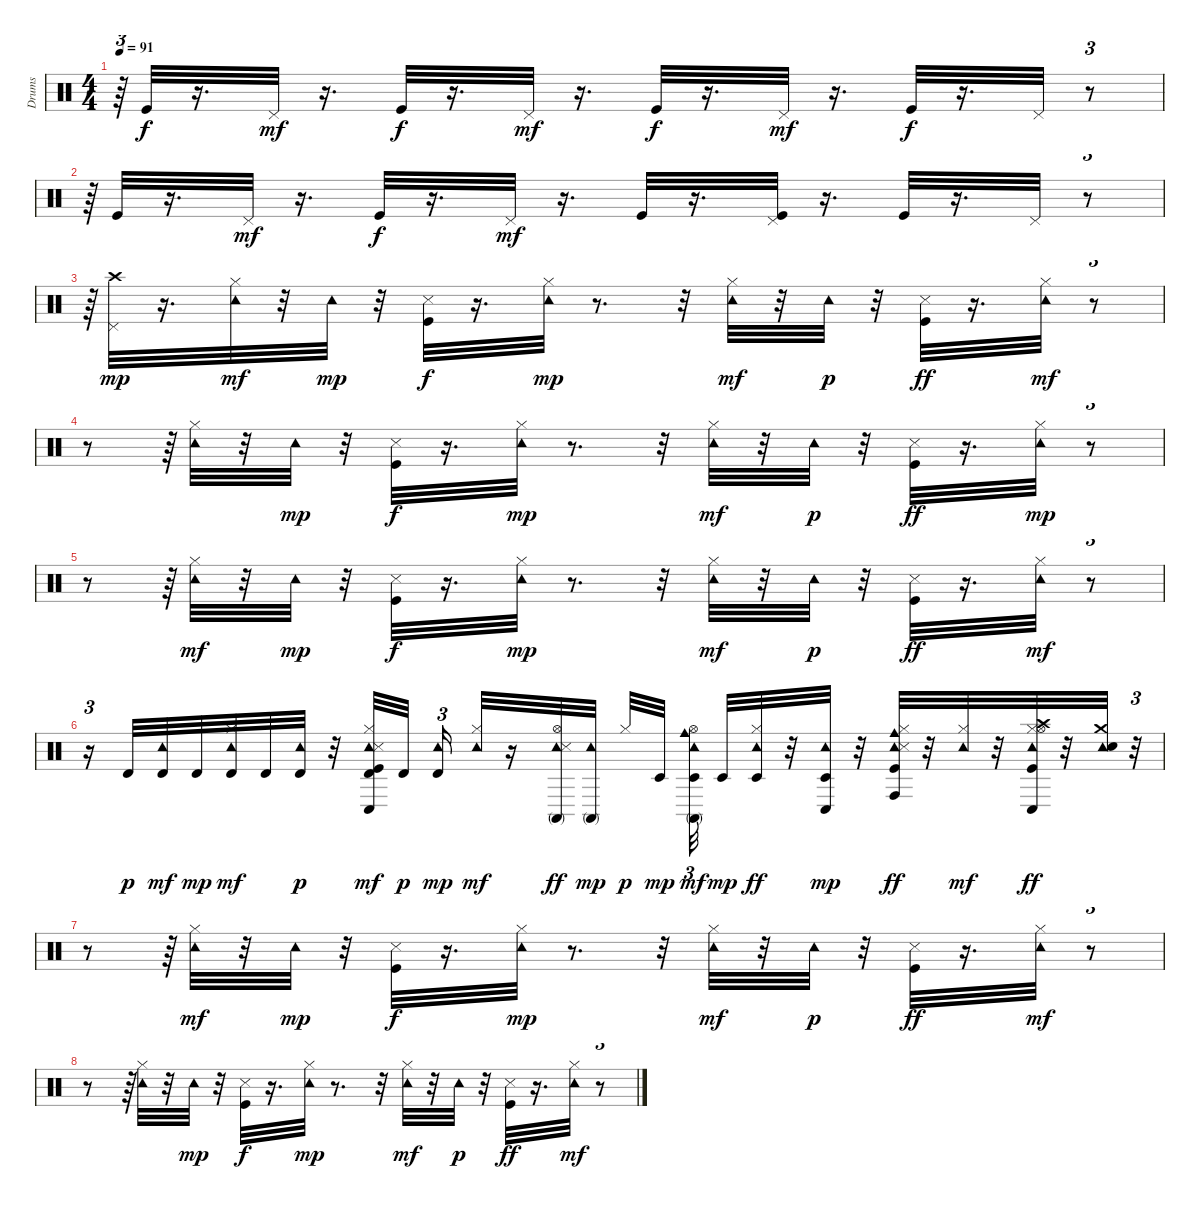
\track ("Drums" "Drums") {instrument percussion}
\staff {score}
\articulation defaults
\ts (4 4)
\tempo 91
\clef neutral
\ks c
r.64{tu (3 2) dy f} "Kick (hit)".32 r.16{d} "Pedal Hi-Hat (hit)".32{dy mf} r.16{d} "Kick (hit)".32{dy f} r.16{d} "Pedal Hi-Hat (hit)".32{dy mf} r.16{d} "Kick (hit)".32{dy f} r.16{d} "Pedal Hi-Hat (hit)".32{dy mf} r.16{d} "Kick (hit)".32{dy f} r.16{d} "Pedal Hi-Hat (hit)".32 r.8{tu (3 2)} |
r.64{tu (3 2)} "Kick (hit)".32 r.16{d} "Pedal Hi-Hat (hit)".32{dy mf} r.16{d} "Kick (hit)".32{dy f} r.16{d} "Pedal Hi-Hat (hit)".32{dy mf} r.16{d} "Kick (hit)".32 r.16{d} ("Kick (hit)" "Pedal Hi-Hat (hit)").32 r.16{d} "Kick (hit)".32 r.16{d} "Pedal Hi-Hat (hit)".32 r.8{tu (3 2)} |
r.64{tu (3 2)} ("Crash high (hit)" "Pedal Hi-Hat (hit)").32{dy mp} r.16{d} ("Tambourine (hit)" "Hi-Hat (closed)").32{dy mf} r.32 "Tambourine (hit)".32{dy mp} r.32 ("Kick (hit)" "Snare (side stick) 3").32{dy f} r.16{d} ("Tambourine (hit)" "Hi-Hat (closed)").32{dy mp} r.8{d} r.32 ("Tambourine (hit)" "Hi-Hat (closed)").32{dy mf} r.32 "Tambourine (hit)".32{dy p} r.32 ("Snare (side stick) 3" "Kick (hit)").32{dy ff} r.16{d} ("Tambourine (hit)" "Hi-Hat (closed)").32{dy mf} r.8{tu (3 2)} |
r.8 r.64{tu (3 2)} ("Tambourine (hit)" "Hi-Hat (closed)").32 r.32 "Tambourine (hit)".32{dy mp} r.32 ("Snare (side stick) 3" "Kick (hit)").32{dy f} r.16{d} ("Tambourine (hit)" "Hi-Hat (closed)").32{dy mp} r.8{d} r.32 ("Tambourine (hit)" "Hi-Hat (closed)").32{dy mf} r.32 "Tambourine (hit)".32{dy p} r.32 ("Kick (hit)" "Snare (side stick) 3").32{dy ff} r.16{d} ("Hi-Hat (closed)" "Tambourine (hit)").32{dy mp} r.8{tu (3 2)} |
r.8 r.64{tu (3 2)} ("Tambourine (hit)" "Hi-Hat (closed)").32{dy mf} r.32 "Tambourine (hit)".32{dy mp} r.32 ("Kick (hit)" "Snare (side stick) 3").32{dy f} r.16{d} ("Hi-Hat (closed)" "Tambourine (hit)").32{dy mp} r.8{d} r.32 ("Tambourine (hit)" "Hi-Hat (closed)").32{dy mf} r.32 "Tambourine (hit)".32{dy p} r.32 ("Kick (hit)" "Snare (side stick) 3").32{dy ff} r.16{d} ("Tambourine (hit)" "Hi-Hat (closed)").32{dy mf} r.8{tu (3 2)} |
r.16{tu (3 2)} "Timbale high (hit)".32{dy p} ("Tambourine (hit)" "Timbale high (hit)").32{dy mf} "Timbale high (hit)".32{dy mp} ("Tambourine (hit)" "Hi-Hat (closed)" "Timbale high (hit)").32{dy mf} "Timbale high (hit)".32 ("Tambourine (hit)" "Timbale high (hit)").32{dy p} r.32 ("Tambourine (hit)" "Kick (hit)" "Snare (side stick) 3" "Hi-Hat (closed)" "Timbale high (hit)" "Conga low (hit)").32{dy mf} "Timbale high (hit)".32{dy p} ("Tambourine (hit)" "Timbale high (hit)").16{tu (3 2) dy mp} ("Tambourine (hit)" "Hi-Hat (closed)").32{dy mf} r.16 ("Tambourine (hit)" "Conga high (mute)" "Hi-Hat (open)" "Snare (side stick) 3").32{dy ff} ("Tambourine (hit)" "Conga high (mute)").32{dy mp} "Hi-Hat (closed)".32{dy p} "Timbale low (hit)".32{dy mp} ("Conga high (mute)" "Cowbell medium (hit)" "Tambourine (hit)" "Timbale low (hit)" "Hi-Hat (open)").32{tu (3 2) dy mf} "Timbale low (hit)".32{dy mp} ("Tambourine (hit)" "Hi-Hat (closed)" "Timbale low (hit)").32{dy ff} r.32 ("Tambourine (hit)" "Conga low (hit)" "Timbale low (hit)").32{dy mp} r.32 ("Tambourine (hit)" "Kick (hit)" "Snare (side stick) 3" "Cowbell medium (hit)" "Conga high (hit)" "Hi-Hat (closed)").32{dy ff} r.32 ("Tambourine (hit)" "Hi-Hat (closed)").32{dy mf} r.32 ("Tambourine (hit)" "Hi-Hat (closed)" "Crash high (hit)" "Hi-Hat (open)" "Conga low (hit)" "Kick (hit)").32{dy ff} r.32 ("Tambourine (hit)" "Metronome (bell)" "Crash medium (hit)").32 r.32{tu (3 2)} |
r.8 r.64{tu (3 2)} ("Tambourine (hit)" "Hi-Hat (closed)").32{dy mf} r.32 "Tambourine (hit)".32{dy mp} r.32 ("Kick (hit)" "Snare (side stick) 3").32{dy f} r.16{d} ("Tambourine (hit)" "Hi-Hat (closed)").32{dy mp} r.8{d} r.32 ("Tambourine (hit)" "Hi-Hat (closed)").32{dy mf} r.32 "Tambourine (hit)".32{dy p} r.32 ("Snare (side stick) 3" "Kick (hit)").32{dy ff} r.16{d} ("Tambourine (hit)" "Hi-Hat (closed)").32{dy mf} r.8{tu (3 2)} |
r.8 r.64{tu (3 2)} ("Tambourine (hit)" "Hi-Hat (closed)").32 r.32 "Tambourine (hit)".32{dy mp} r.32 ("Snare (side stick) 3" "Kick (hit)").32{dy f} r.16{d} ("Tambourine (hit)" "Hi-Hat (closed)").32{dy mp} r.8{d} r.32 ("Tambourine (hit)" "Hi-Hat (closed)").32{dy mf} r.32 "Tambourine (hit)".32{dy p} r.32 ("Snare (side stick) 3" "Kick (hit)").32{dy ff} r.16{d} ("Tambourine (hit)" "Hi-Hat (closed)").32{dy mf} r.8{tu (3 2)}
